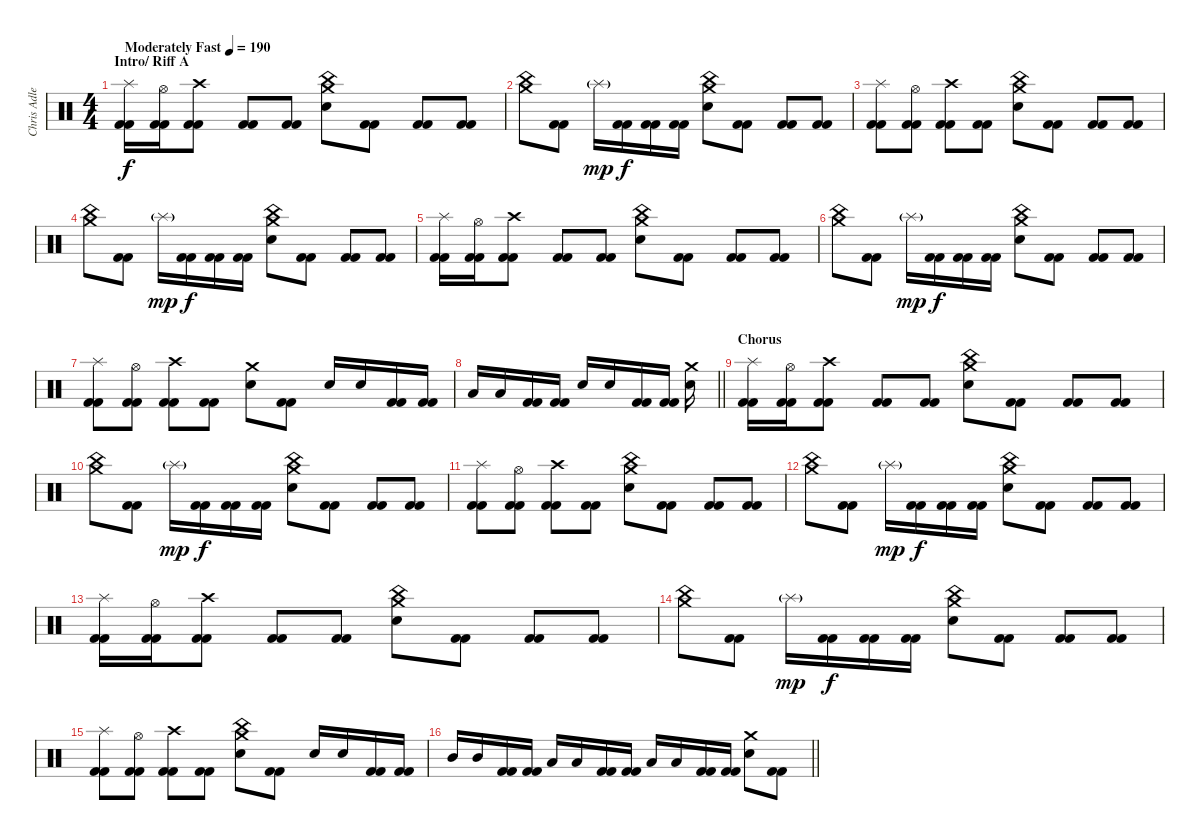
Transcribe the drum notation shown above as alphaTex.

\track ("Chris Adler" "Chris Adle") {instrument percussion}
\staff {score}
\articulation defaults
\ts (4 4)
\section ("" "Intro/ Riff A")
\tempo (190 "Moderately Fast")
\clef neutral
\ks c
("Splash (hit)" "Kick (hit) 2" "Kick (hit) 2").16{dy f} ("Hi-Hat (open)" "Kick (hit) 2" "Kick (hit) 2").16 ("Crash high (hit)" "Kick (hit) 2" "Kick (hit) 2").8 ("Kick (hit) 2" "Kick (hit) 2").8 ("Kick (hit) 2" "Kick (hit) 2").8 ("Crash medium (hit)" "China (hit)" "Electric Snare (hit)").8 ("Kick (hit) 2" "Kick (hit) 2").8 ("Kick (hit) 2" "Kick (hit) 2").8 ("Kick (hit) 2" "Kick (hit) 2").8 |
("Crash medium (hit)" "China (hit)").8 ("Kick (hit) 2" "Kick (hit) 2").8 "Splash (hit)"{g}.16{dy mp} ("Kick (hit) 2" "Kick (hit) 2").16{dy f} ("Kick (hit) 2" "Kick (hit) 2").16 ("Kick (hit) 2" "Kick (hit) 2").16 ("Crash medium (hit)" "China (hit)" "Electric Snare (hit)").8 ("Kick (hit) 2" "Kick (hit) 2").8 ("Kick (hit) 2" "Kick (hit) 2").8 ("Kick (hit) 2" "Kick (hit) 2").8 |
("Splash (hit)" "Kick (hit) 2" "Kick (hit) 2").8 ("Hi-Hat (open)" "Kick (hit) 2" "Kick (hit) 2").8 ("Crash high (hit)" "Kick (hit) 2" "Kick (hit) 2").8 ("Kick (hit) 2" "Kick (hit) 2").8 ("Crash medium (hit)" "China (hit)" "Electric Snare (hit)").8 ("Kick (hit) 2" "Kick (hit) 2").8 ("Kick (hit) 2" "Kick (hit) 2").8 ("Kick (hit) 2" "Kick (hit) 2").8 |
("Crash medium (hit)" "China (hit)").8 ("Kick (hit) 2" "Kick (hit) 2").8 "Splash (hit)"{g}.16{dy mp} ("Kick (hit) 2" "Kick (hit) 2").16{dy f} ("Kick (hit) 2" "Kick (hit) 2").16 ("Kick (hit) 2" "Kick (hit) 2").16 ("Crash medium (hit)" "China (hit)" "Electric Snare (hit)").8 ("Kick (hit) 2" "Kick (hit) 2").8 ("Kick (hit) 2" "Kick (hit) 2").8 ("Kick (hit) 2" "Kick (hit) 2").8 |
("Splash (hit)" "Kick (hit) 2" "Kick (hit) 2").16 ("Hi-Hat (open)" "Kick (hit) 2" "Kick (hit) 2").16 ("Crash high (hit)" "Kick (hit) 2" "Kick (hit) 2").8 ("Kick (hit) 2" "Kick (hit) 2").8 ("Kick (hit) 2" "Kick (hit) 2").8 ("Crash medium (hit)" "China (hit)" "Electric Snare (hit)").8 ("Kick (hit) 2" "Kick (hit) 2").8 ("Kick (hit) 2" "Kick (hit) 2").8 ("Kick (hit) 2" "Kick (hit) 2").8 |
("Crash medium (hit)" "China (hit)").8 ("Kick (hit) 2" "Kick (hit) 2").8 "Splash (hit)"{g}.16{dy mp} ("Kick (hit) 2" "Kick (hit) 2").16{dy f} ("Kick (hit) 2" "Kick (hit) 2").16 ("Kick (hit) 2" "Kick (hit) 2").16 ("Crash medium (hit)" "China (hit)" "Electric Snare (hit)").8 ("Kick (hit) 2" "Kick (hit) 2").8 ("Kick (hit) 2" "Kick (hit) 2").8 ("Kick (hit) 2" "Kick (hit) 2").8 |
("Splash (hit)" "Kick (hit) 2" "Kick (hit) 2").8 ("Hi-Hat (open)" "Kick (hit) 2" "Kick (hit) 2").8 ("Crash high (hit)" "Kick (hit) 2" "Kick (hit) 2").8 ("Kick (hit) 2" "Kick (hit) 2").8 ("Crash medium (hit)" "Electric Snare (hit)").8 ("Kick (hit) 2" "Kick (hit) 2").8 "Electric Snare (hit)".16 "Electric Snare (hit)".16 ("Kick (hit) 2" "Kick (hit) 2").16 ("Kick (hit) 2" "Kick (hit) 2").16 |
\barLineRight lightlight "Low Tom (hit)".16 "Low Tom (hit)".16
("Kick (hit) 2" "Kick (hit) 2").16 ("Kick (hit) 2" "Kick (hit) 2").16 "Electric Snare (hit)".16 "Electric Snare (hit)".16 ("Kick (hit) 2" "Kick (hit) 2").16 ("Kick (hit) 2" "Kick (hit) 2").16 ("Crash medium (hit)" "Electric Snare (hit)").16 |
\section ("" "Chorus")
("Splash (hit)" "Kick (hit) 2" "Kick (hit) 2").16 ("Hi-Hat (open)" "Kick (hit) 2" "Kick (hit) 2").16 ("Crash high (hit)" "Kick (hit) 2" "Kick (hit) 2").8 ("Kick (hit) 2" "Kick (hit) 2").8 ("Kick (hit) 2" "Kick (hit) 2").8 ("Crash medium (hit)" "China (hit)" "Electric Snare (hit)").8 ("Kick (hit) 2" "Kick (hit) 2").8 ("Kick (hit) 2" "Kick (hit) 2").8 ("Kick (hit) 2" "Kick (hit) 2").8 |
("Crash medium (hit)" "China (hit)").8 ("Kick (hit) 2" "Kick (hit) 2").8 "Splash (hit)"{g}.16{dy mp} ("Kick (hit) 2" "Kick (hit) 2").16{dy f} ("Kick (hit) 2" "Kick (hit) 2").16 ("Kick (hit) 2" "Kick (hit) 2").16 ("Crash medium (hit)" "China (hit)" "Electric Snare (hit)").8 ("Kick (hit) 2" "Kick (hit) 2").8 ("Kick (hit) 2" "Kick (hit) 2").8 ("Kick (hit) 2" "Kick (hit) 2").8 |
("Splash (hit)" "Kick (hit) 2" "Kick (hit) 2").8 ("Hi-Hat (open)" "Kick (hit) 2" "Kick (hit) 2").8 ("Crash high (hit)" "Kick (hit) 2" "Kick (hit) 2").8 ("Kick (hit) 2" "Kick (hit) 2").8 ("Crash medium (hit)" "China (hit)" "Electric Snare (hit)").8 ("Kick (hit) 2" "Kick (hit) 2").8 ("Kick (hit) 2" "Kick (hit) 2").8 ("Kick (hit) 2" "Kick (hit) 2").8 |
("Crash medium (hit)" "China (hit)").8 ("Kick (hit) 2" "Kick (hit) 2").8 "Splash (hit)"{g}.16{dy mp} ("Kick (hit) 2" "Kick (hit) 2").16{dy f} ("Kick (hit) 2" "Kick (hit) 2").16 ("Kick (hit) 2" "Kick (hit) 2").16 ("Crash medium (hit)" "China (hit)" "Electric Snare (hit)").8 ("Kick (hit) 2" "Kick (hit) 2").8 ("Kick (hit) 2" "Kick (hit) 2").8 ("Kick (hit) 2" "Kick (hit) 2").8 |
("Splash (hit)" "Kick (hit) 2" "Kick (hit) 2").16 ("Hi-Hat (open)" "Kick (hit) 2" "Kick (hit) 2").16 ("Crash high (hit)" "Kick (hit) 2" "Kick (hit) 2").8 ("Kick (hit) 2" "Kick (hit) 2").8 ("Kick (hit) 2" "Kick (hit) 2").8 ("Crash medium (hit)" "China (hit)" "Electric Snare (hit)").8 ("Kick (hit) 2" "Kick (hit) 2").8 ("Kick (hit) 2" "Kick (hit) 2").8 ("Kick (hit) 2" "Kick (hit) 2").8 |
("Crash medium (hit)" "China (hit)").8 ("Kick (hit) 2" "Kick (hit) 2").8 "Splash (hit)"{g}.16{dy mp} ("Kick (hit) 2" "Kick (hit) 2").16{dy f} ("Kick (hit) 2" "Kick (hit) 2").16 ("Kick (hit) 2" "Kick (hit) 2").16 ("Crash medium (hit)" "China (hit)" "Electric Snare (hit)").8 ("Kick (hit) 2" "Kick (hit) 2").8 ("Kick (hit) 2" "Kick (hit) 2").8 ("Kick (hit) 2" "Kick (hit) 2").8 |
("Splash (hit)" "Kick (hit) 2" "Kick (hit) 2").8 ("Hi-Hat (open)" "Kick (hit) 2" "Kick (hit) 2").8 ("Crash high (hit)" "Kick (hit) 2" "Kick (hit) 2").8 ("Kick (hit) 2" "Kick (hit) 2").8 ("Crash medium (hit)" "China (hit)" "Electric Snare (hit)").8 ("Kick (hit) 2" "Kick (hit) 2").8 "Electric Snare (hit)".16 "Electric Snare (hit)".16 ("Kick (hit) 2" "Kick (hit) 2").16 ("Kick (hit) 2" "Kick (hit) 2").16 |
\barLineRight lightlight "Mid Tom (hit)".16 "Mid Tom (hit)".16
("Kick (hit) 2" "Kick (hit) 2").16 ("Kick (hit) 2" "Kick (hit) 2").16 "Low Tom (hit)".16 "Low Tom (hit)".16 ("Kick (hit) 2" "Kick (hit) 2").16 ("Kick (hit) 2" "Kick (hit) 2").16 "Low Floor Tom (hit)".16 "Low Floor Tom (hit)".16 ("Kick (hit) 2" "Kick (hit) 2").16 ("Kick (hit) 2" "Kick (hit) 2").16 ("Crash medium (hit)" "Electric Snare (hit)").8 ("Kick (hit) 2" "Kick (hit) 2").8
